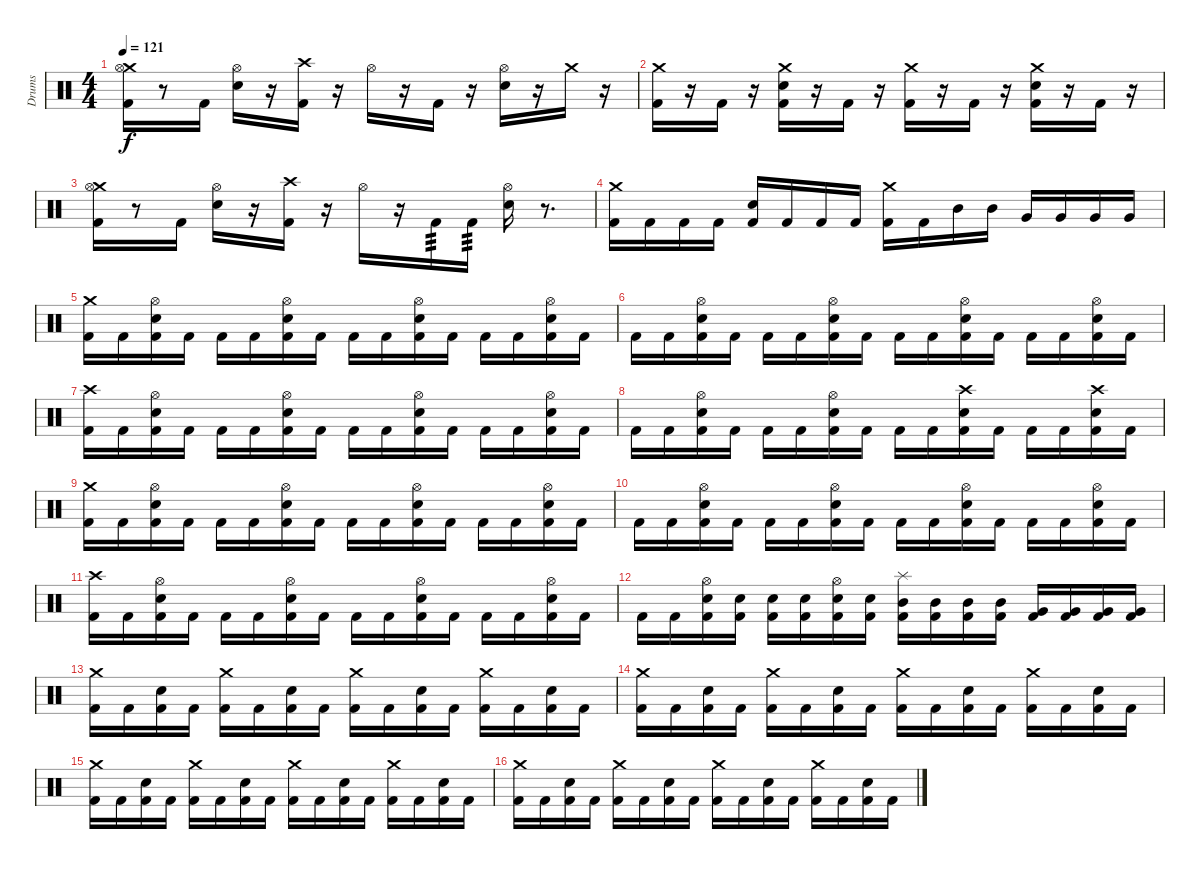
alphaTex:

\track ("Drums" "Drums") {instrument percussion}
\staff {score}
\articulation defaults
\ts (4 4)
\tempo 121
\clef neutral
\ks c
("Crash medium (hit)" "Hi-Hat (open)" "Kick (hit) 2").16{dy f} r.8 "Kick (hit) 2".16 ("Hi-Hat (open)" "Electric Snare (hit)").16 r.16 ("Crash high (hit)" "Kick (hit) 2").16 r.16 "Hi-Hat (open)".16 r.16 "Kick (hit) 2".16 r.16 ("Hi-Hat (open)" "Electric Snare (hit)").16 r.16 "Crash medium (hit)".16 r.16 |
("Crash medium (hit)" "Kick (hit) 2").16 r.16 "Kick (hit) 2".16 r.16 ("Crash medium (hit)" "Electric Snare (hit)" "Kick (hit) 2").16 r.16 "Kick (hit) 2".16 r.16 ("Crash medium (hit)" "Kick (hit) 2").16 r.16 "Kick (hit) 2".16 r.16 ("Crash medium (hit)" "Electric Snare (hit)" "Kick (hit) 2").16 r.16 "Kick (hit) 2".16 r.16 |
("Crash medium (hit)" "Hi-Hat (open)" "Kick (hit) 2").16 r.8 "Kick (hit) 2".16 ("Hi-Hat (open)" "Electric Snare (hit)").16 r.16 ("Crash high (hit)" "Kick (hit) 2").16 r.16 "Hi-Hat (open)".16 r.16 "Kick (hit) 2".16{tp 3} "Kick (hit) 2".16{tp 3} ("Hi-Hat (open)" "Electric Snare (hit)").16 r.8{d} |
("Crash medium (hit)" "Kick (hit) 2").16 "Kick (hit) 2".16 "Kick (hit) 2".16 "Kick (hit) 2".16 ("Electric Snare (hit)" "Kick (hit) 2").16 "Kick (hit) 2".16 "Kick (hit) 2".16 "Kick (hit) 2".16 ("Crash medium (hit)" "Kick (hit) 2").16 "Kick (hit) 2".16 "Mid Tom (hit)".16 "Mid Tom (hit)".16 "Very Low Tom (hit)".16 "Very Low Tom (hit)".16 "Very Low Tom (hit)".16 "Very Low Tom (hit)".16 |
("Crash medium (hit)" "Kick (hit) 2").16 "Kick (hit) 2".16 ("Hi-Hat (open)" "Electric Snare (hit)" "Kick (hit) 2").16 "Kick (hit) 2".16 "Kick (hit) 2".16 "Kick (hit) 2".16 ("Hi-Hat (open)" "Electric Snare (hit)" "Kick (hit) 2").16 "Kick (hit) 2".16 "Kick (hit) 2".16 "Kick (hit) 2".16 ("Hi-Hat (open)" "Electric Snare (hit)" "Kick (hit) 2").16 "Kick (hit) 2".16 "Kick (hit) 2".16 "Kick (hit) 2".16 ("Hi-Hat (open)" "Electric Snare (hit)" "Kick (hit) 2").16 "Kick (hit) 2".16 |
"Kick (hit) 2".16 "Kick (hit) 2".16 ("Hi-Hat (open)" "Electric Snare (hit)" "Kick (hit) 2").16 "Kick (hit) 2".16 "Kick (hit) 2".16 "Kick (hit) 2".16 ("Hi-Hat (open)" "Electric Snare (hit)" "Kick (hit) 2").16 "Kick (hit) 2".16 "Kick (hit) 2".16 "Kick (hit) 2".16 ("Hi-Hat (open)" "Electric Snare (hit)" "Kick (hit) 2").16 "Kick (hit) 2".16 "Kick (hit) 2".16 "Kick (hit) 2".16 ("Hi-Hat (open)" "Electric Snare (hit)" "Kick (hit) 2").16 "Kick (hit) 2".16 |
("Crash high (hit)" "Kick (hit) 2").16 "Kick (hit) 2".16 ("Hi-Hat (open)" "Electric Snare (hit)" "Kick (hit) 2").16 "Kick (hit) 2".16 "Kick (hit) 2".16 "Kick (hit) 2".16 ("Hi-Hat (open)" "Electric Snare (hit)" "Kick (hit) 2").16 "Kick (hit) 2".16 "Kick (hit) 2".16 "Kick (hit) 2".16 ("Hi-Hat (open)" "Electric Snare (hit)" "Kick (hit) 2").16 "Kick (hit) 2".16 "Kick (hit) 2".16 "Kick (hit) 2".16 ("Hi-Hat (open)" "Electric Snare (hit)" "Kick (hit) 2").16 "Kick (hit) 2".16 |
"Kick (hit) 2".16 "Kick (hit) 2".16 ("Hi-Hat (open)" "Electric Snare (hit)" "Kick (hit) 2").16 "Kick (hit) 2".16 "Kick (hit) 2".16 "Kick (hit) 2".16 ("Hi-Hat (open)" "Electric Snare (hit)" "Kick (hit) 2").16 "Kick (hit) 2".16 "Kick (hit) 2".16 "Kick (hit) 2".16 ("Crash high (hit)" "Electric Snare (hit)" "Kick (hit) 2").16 "Kick (hit) 2".16 "Kick (hit) 2".16 "Kick (hit) 2".16 ("Crash high (hit)" "Electric Snare (hit)" "Kick (hit) 2").16 "Kick (hit) 2".16 |
("Crash medium (hit)" "Kick (hit) 2").16 "Kick (hit) 2".16 ("Hi-Hat (open)" "Electric Snare (hit)" "Kick (hit) 2").16 "Kick (hit) 2".16 "Kick (hit) 2".16 "Kick (hit) 2".16 ("Hi-Hat (open)" "Electric Snare (hit)" "Kick (hit) 2").16 "Kick (hit) 2".16 "Kick (hit) 2".16 "Kick (hit) 2".16 ("Hi-Hat (open)" "Electric Snare (hit)" "Kick (hit) 2").16 "Kick (hit) 2".16 "Kick (hit) 2".16 "Kick (hit) 2".16 ("Hi-Hat (open)" "Electric Snare (hit)" "Kick (hit) 2").16 "Kick (hit) 2".16 |
"Kick (hit) 2".16 "Kick (hit) 2".16 ("Hi-Hat (open)" "Electric Snare (hit)" "Kick (hit) 2").16 "Kick (hit) 2".16 "Kick (hit) 2".16 "Kick (hit) 2".16 ("Hi-Hat (open)" "Electric Snare (hit)" "Kick (hit) 2").16 "Kick (hit) 2".16 "Kick (hit) 2".16 "Kick (hit) 2".16 ("Hi-Hat (open)" "Electric Snare (hit)" "Kick (hit) 2").16 "Kick (hit) 2".16 "Kick (hit) 2".16 "Kick (hit) 2".16 ("Hi-Hat (open)" "Electric Snare (hit)" "Kick (hit) 2").16 "Kick (hit) 2".16 |
("Crash high (hit)" "Kick (hit) 2").16 "Kick (hit) 2".16 ("Hi-Hat (open)" "Electric Snare (hit)" "Kick (hit) 2").16 "Kick (hit) 2".16 "Kick (hit) 2".16 "Kick (hit) 2".16 ("Hi-Hat (open)" "Electric Snare (hit)" "Kick (hit) 2").16 "Kick (hit) 2".16 "Kick (hit) 2".16 "Kick (hit) 2".16 ("Hi-Hat (open)" "Electric Snare (hit)" "Kick (hit) 2").16 "Kick (hit) 2".16 "Kick (hit) 2".16 "Kick (hit) 2".16 ("Hi-Hat (open)" "Electric Snare (hit)" "Kick (hit) 2").16 "Kick (hit) 2".16 |
"Kick (hit) 2".16 "Kick (hit) 2".16 ("Hi-Hat (open)" "Electric Snare (hit)" "Kick (hit) 2").16 ("Electric Snare (hit)" "Kick (hit) 2").16 ("Electric Snare (hit)" "Kick (hit) 2").16 ("Electric Snare (hit)" "Kick (hit) 2").16 ("Hi-Hat (open)" "Electric Snare (hit)" "Kick (hit) 2").16 ("Electric Snare (hit)" "Kick (hit) 2").16 ("Splash (hit)" "Mid Tom (hit)" "Kick (hit) 2").16 ("Mid Tom (hit)" "Kick (hit) 2").16 ("Mid Tom (hit)" "Kick (hit) 2").16 ("Mid Tom (hit)" "Kick (hit) 2").16 ("Very Low Tom (hit)" "Kick (hit) 2").16 ("Very Low Tom (hit)" "Kick (hit) 2").16 ("Very Low Tom (hit)" "Kick (hit) 2").16 ("Very Low Tom (hit)" "Kick (hit) 2").16 |
("Crash medium (hit)" "Kick (hit) 2").16 "Kick (hit) 2".16 ("Electric Snare (hit)" "Kick (hit) 2").16 "Kick (hit) 2".16 ("Crash medium (hit)" "Kick (hit) 2").16 "Kick (hit) 2".16 ("Electric Snare (hit)" "Kick (hit) 2").16 "Kick (hit) 2".16 ("Crash medium (hit)" "Kick (hit) 2").16 "Kick (hit) 2".16 ("Electric Snare (hit)" "Kick (hit) 2").16 "Kick (hit) 2".16 ("Crash medium (hit)" "Kick (hit) 2").16 "Kick (hit) 2".16 ("Electric Snare (hit)" "Kick (hit) 2").16 "Kick (hit) 2".16 |
("Crash medium (hit)" "Kick (hit) 2").16 "Kick (hit) 2".16 ("Electric Snare (hit)" "Kick (hit) 2").16 "Kick (hit) 2".16 ("Crash medium (hit)" "Kick (hit) 2").16 "Kick (hit) 2".16 ("Electric Snare (hit)" "Kick (hit) 2").16 "Kick (hit) 2".16 ("Crash medium (hit)" "Kick (hit) 2").16 "Kick (hit) 2".16 ("Electric Snare (hit)" "Kick (hit) 2").16 "Kick (hit) 2".16 ("Crash medium (hit)" "Kick (hit) 2").16 "Kick (hit) 2".16 ("Electric Snare (hit)" "Kick (hit) 2").16 "Kick (hit) 2".16 |
("Crash medium (hit)" "Kick (hit) 2").16 "Kick (hit) 2".16 ("Electric Snare (hit)" "Kick (hit) 2").16 "Kick (hit) 2".16 ("Crash medium (hit)" "Kick (hit) 2").16 "Kick (hit) 2".16 ("Electric Snare (hit)" "Kick (hit) 2").16 "Kick (hit) 2".16 ("Crash medium (hit)" "Kick (hit) 2").16 "Kick (hit) 2".16 ("Electric Snare (hit)" "Kick (hit) 2").16 "Kick (hit) 2".16 ("Crash medium (hit)" "Kick (hit) 2").16 "Kick (hit) 2".16 ("Electric Snare (hit)" "Kick (hit) 2").16 "Kick (hit) 2".16 |
("Crash medium (hit)" "Kick (hit) 2").16 "Kick (hit) 2".16 ("Electric Snare (hit)" "Kick (hit) 2").16 "Kick (hit) 2".16 ("Crash medium (hit)" "Kick (hit) 2").16 "Kick (hit) 2".16 ("Electric Snare (hit)" "Kick (hit) 2").16 "Kick (hit) 2".16 ("Crash medium (hit)" "Kick (hit) 2").16 "Kick (hit) 2".16 ("Electric Snare (hit)" "Kick (hit) 2").16 "Kick (hit) 2".16 ("Crash medium (hit)" "Kick (hit) 2").16 "Kick (hit) 2".16 ("Electric Snare (hit)" "Kick (hit) 2").16 "Kick (hit) 2".16
